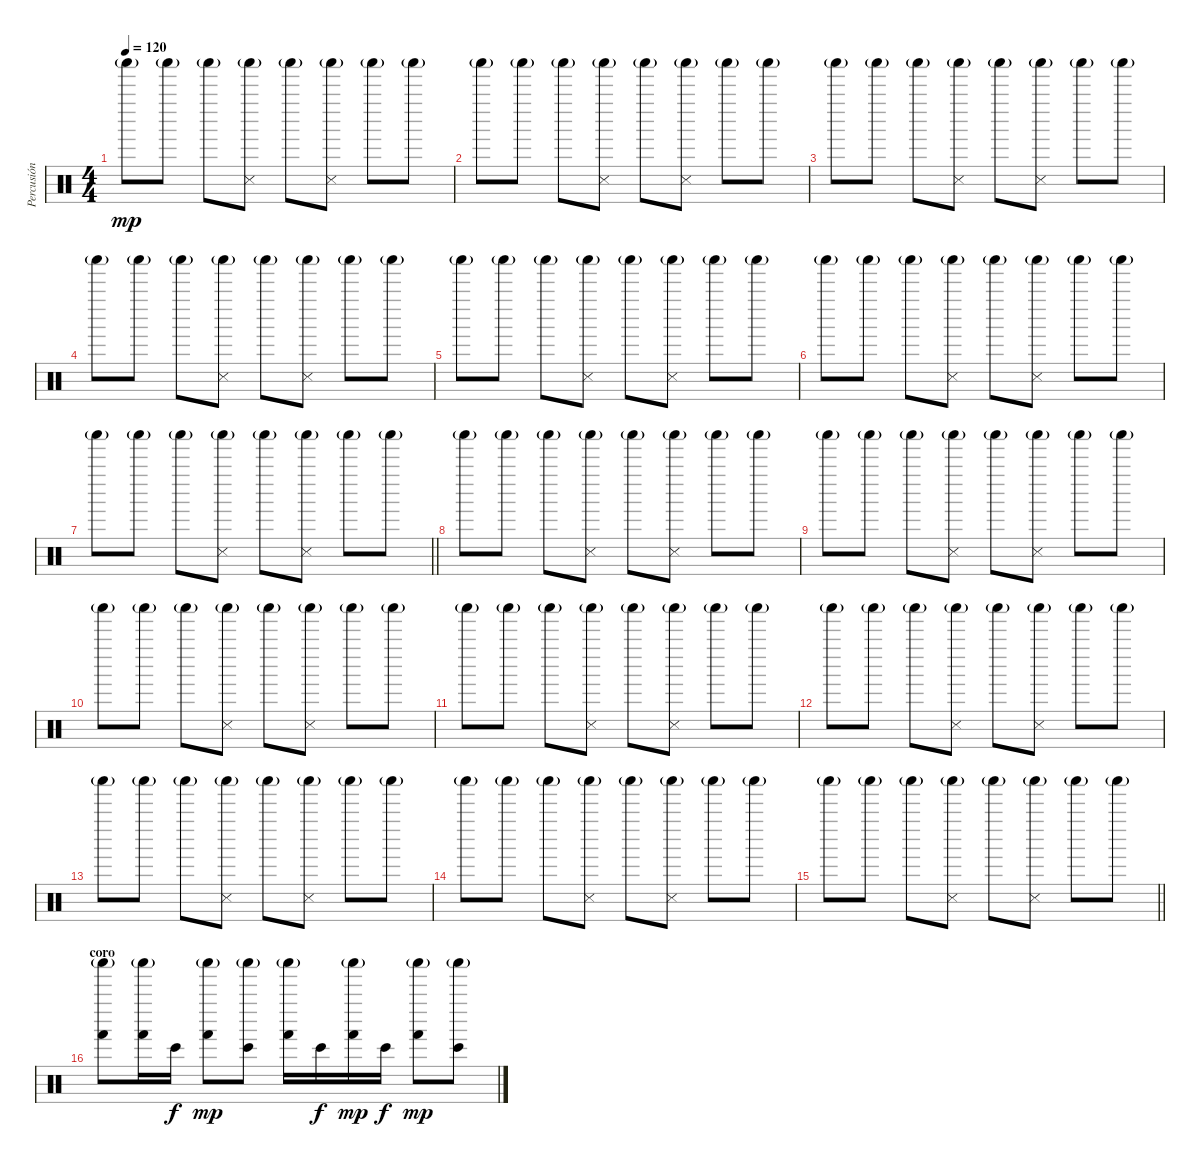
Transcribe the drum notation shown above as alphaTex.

\track ("Percusión" "Percusión") {instrument percussion}
\staff {score}
\articulation defaults
\ts (4 4)
\tempo 120
\clef neutral
\ks c "Shaker (hit)"{g}.8{dy mp} "Shaker (hit)"{g}.8 "Shaker (hit)"{g}.8
("Snare (side stick) 3" "Shaker (hit)"{g}).8 "Shaker (hit)"{g}.8 ("Snare (side stick) 3" "Shaker (hit)"{g}).8 "Shaker (hit)"{g}.8 "Shaker (hit)"{g}.8 |
"Shaker (hit)"{g}.8 "Shaker (hit)"{g}.8 "Shaker (hit)"{g}.8 ("Snare (side stick) 3" "Shaker (hit)"{g}).8 "Shaker (hit)"{g}.8 ("Snare (side stick) 3" "Shaker (hit)"{g}).8 "Shaker (hit)"{g}.8 "Shaker (hit)"{g}.8 |
"Shaker (hit)"{g}.8 "Shaker (hit)"{g}.8 "Shaker (hit)"{g}.8 ("Snare (side stick) 3" "Shaker (hit)"{g}).8 "Shaker (hit)"{g}.8 ("Snare (side stick) 3" "Shaker (hit)"{g}).8 "Shaker (hit)"{g}.8 "Shaker (hit)"{g}.8 |
"Shaker (hit)"{g}.8 "Shaker (hit)"{g}.8 "Shaker (hit)"{g}.8 ("Snare (side stick) 3" "Shaker (hit)"{g}).8 "Shaker (hit)"{g}.8 ("Snare (side stick) 3" "Shaker (hit)"{g}).8 "Shaker (hit)"{g}.8 "Shaker (hit)"{g}.8 |
"Shaker (hit)"{g}.8 "Shaker (hit)"{g}.8 "Shaker (hit)"{g}.8 ("Snare (side stick) 3" "Shaker (hit)"{g}).8 "Shaker (hit)"{g}.8 ("Snare (side stick) 3" "Shaker (hit)"{g}).8 "Shaker (hit)"{g}.8 "Shaker (hit)"{g}.8 |
"Shaker (hit)"{g}.8 "Shaker (hit)"{g}.8 "Shaker (hit)"{g}.8 ("Snare (side stick) 3" "Shaker (hit)"{g}).8 "Shaker (hit)"{g}.8 ("Snare (side stick) 3" "Shaker (hit)"{g}).8 "Shaker (hit)"{g}.8 "Shaker (hit)"{g}.8 |
\barLineRight lightlight "Shaker (hit)"{g}.8 "Shaker (hit)"{g}.8 "Shaker (hit)"{g}.8
("Snare (side stick) 3" "Shaker (hit)"{g}).8 "Shaker (hit)"{g}.8 ("Snare (side stick) 3" "Shaker (hit)"{g}).8 "Shaker (hit)"{g}.8 "Shaker (hit)"{g}.8 |
\section ("" "")
"Shaker (hit)"{g}.8 "Shaker (hit)"{g}.8 "Shaker (hit)"{g}.8 ("Snare (side stick) 3" "Shaker (hit)"{g}).8 "Shaker (hit)"{g}.8 ("Snare (side stick) 3" "Shaker (hit)"{g}).8 "Shaker (hit)"{g}.8 "Shaker (hit)"{g}.8 |
"Shaker (hit)"{g}.8 "Shaker (hit)"{g}.8 "Shaker (hit)"{g}.8 ("Snare (side stick) 3" "Shaker (hit)"{g}).8 "Shaker (hit)"{g}.8 ("Snare (side stick) 3" "Shaker (hit)"{g}).8 "Shaker (hit)"{g}.8 "Shaker (hit)"{g}.8 |
"Shaker (hit)"{g}.8 "Shaker (hit)"{g}.8 "Shaker (hit)"{g}.8 ("Snare (side stick) 3" "Shaker (hit)"{g}).8 "Shaker (hit)"{g}.8 ("Snare (side stick) 3" "Shaker (hit)"{g}).8 "Shaker (hit)"{g}.8 "Shaker (hit)"{g}.8 |
"Shaker (hit)"{g}.8 "Shaker (hit)"{g}.8 "Shaker (hit)"{g}.8 ("Snare (side stick) 3" "Shaker (hit)"{g}).8 "Shaker (hit)"{g}.8 ("Snare (side stick) 3" "Shaker (hit)"{g}).8 "Shaker (hit)"{g}.8 "Shaker (hit)"{g}.8 |
"Shaker (hit)"{g}.8 "Shaker (hit)"{g}.8 "Shaker (hit)"{g}.8 ("Snare (side stick) 3" "Shaker (hit)"{g}).8 "Shaker (hit)"{g}.8 ("Snare (side stick) 3" "Shaker (hit)"{g}).8 "Shaker (hit)"{g}.8 "Shaker (hit)"{g}.8 |
"Shaker (hit)"{g}.8 "Shaker (hit)"{g}.8 "Shaker (hit)"{g}.8 ("Snare (side stick) 3" "Shaker (hit)"{g}).8 "Shaker (hit)"{g}.8 ("Snare (side stick) 3" "Shaker (hit)"{g}).8 "Shaker (hit)"{g}.8 "Shaker (hit)"{g}.8 |
"Shaker (hit)"{g}.8 "Shaker (hit)"{g}.8 "Shaker (hit)"{g}.8 ("Snare (side stick) 3" "Shaker (hit)"{g}).8 "Shaker (hit)"{g}.8 ("Snare (side stick) 3" "Shaker (hit)"{g}).8 "Shaker (hit)"{g}.8 "Shaker (hit)"{g}.8 |
\barLineRight lightlight "Shaker (hit)"{g}.8 "Shaker (hit)"{g}.8 "Shaker (hit)"{g}.8
("Snare (side stick) 3" "Shaker (hit)"{g}).8 "Shaker (hit)"{g}.8 ("Snare (side stick) 3" "Shaker (hit)"{g}).8 "Shaker (hit)"{g}.8 "Shaker (hit)"{g}.8 |
\section ("" "coro")
("Hand (hit)" "Shaker (hit)"{g}).8 ("Hand (hit)" "Shaker (hit)"{g}).16 "Bongo High (hit)".16{dy f} ("Hand (hit)" "Shaker (hit)"{g}).8{dy mp} ("Bongo High (hit)" "Shaker (hit)"{g}).8 ("Hand (hit)" "Shaker (hit)"{g}).16 "Bongo High (hit)".16{dy f} ("Hand (hit)" "Shaker (hit)"{g}).16{dy mp} "Bongo High (hit)".16{dy f} ("Hand (hit)" "Shaker (hit)"{g}).8{dy mp} ("Bongo High (hit)" "Shaker (hit)"{g}).8
